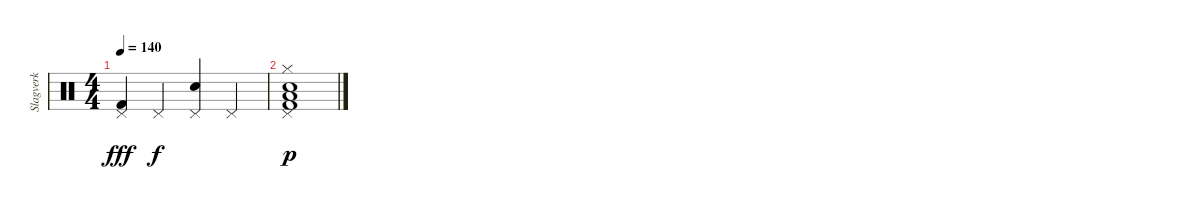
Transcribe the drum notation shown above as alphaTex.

\track ("Slagverk" "Slagverk") {instrument percussion}
\staff {score}
\articulation defaults
\ts (4 4)
\tempo 140
\clef neutral
\ks c
("Pedal Hi-Hat (hit)" "Kick (hit) 2").4{dy fff} "Pedal Hi-Hat (hit)".4{dy f} ("Pedal Hi-Hat (hit)" "Snare (hit) 2").4 "Pedal Hi-Hat (hit)".4 |
("Low Floor Tom (hit)" "Kick (hit) 2" "Pedal Hi-Hat (hit)" "Snare (hit) 2" "Hi-Hat (closed)").1{dy p}
